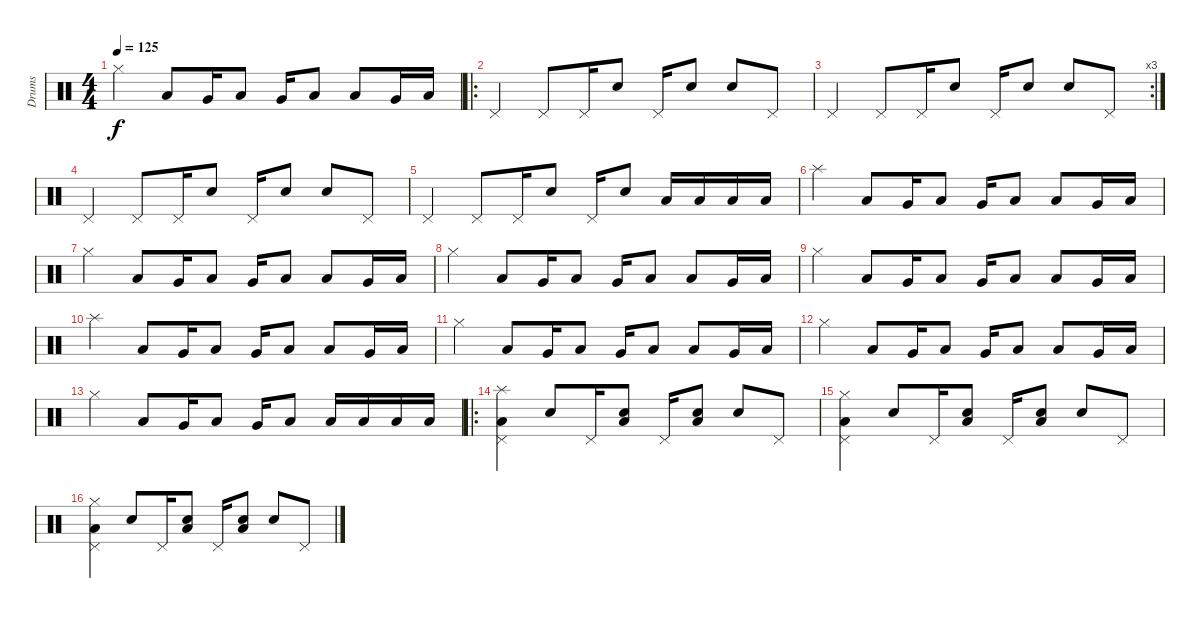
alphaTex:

\track ("Drums" "Drums") {instrument percussion}
\staff {score}
\articulation defaults
\ts (4 4)
\tempo 125
\clef neutral
\ks c "Hi-Hat (closed)".4{dy f} "Low Floor Tom (hit)".8 "Very Low Tom (hit)".16 "Low Floor Tom (hit)".8 "Very Low Tom (hit)".16 "Low Floor Tom (hit)".8 "Low Floor Tom (hit)".8 "Very Low Tom (hit)".16 "Low Floor Tom (hit)".16
|
\ro "Pedal Hi-Hat (hit)".4 "Pedal Hi-Hat (hit)".8 "Pedal Hi-Hat (hit)".16 "Snare (hit) 2".8 "Pedal Hi-Hat (hit)".16 "Snare (hit) 2".8 "Snare (hit) 2".8 "Pedal Hi-Hat (hit)".8
|
\rc 3 "Pedal Hi-Hat (hit)".4 "Pedal Hi-Hat (hit)".8 "Pedal Hi-Hat (hit)".16 "Snare (hit) 2".8 "Pedal Hi-Hat (hit)".16 "Snare (hit) 2".8 "Snare (hit) 2".8 "Pedal Hi-Hat (hit)".8
|
"Pedal Hi-Hat (hit)".4 "Pedal Hi-Hat (hit)".8 "Pedal Hi-Hat (hit)".16 "Snare (hit) 2".8 "Pedal Hi-Hat (hit)".16 "Snare (hit) 2".8 "Snare (hit) 2".8 "Pedal Hi-Hat (hit)".8 |
"Pedal Hi-Hat (hit)".4 "Pedal Hi-Hat (hit)".8 "Pedal Hi-Hat (hit)".16 "Snare (hit) 2".8 "Pedal Hi-Hat (hit)".16 "Snare (hit) 2".8 "Low Floor Tom (hit)".16 "Low Floor Tom (hit)".16 "Low Floor Tom (hit)".16 "Low Floor Tom (hit)".16 |
"Splash (hit)".4 "Low Floor Tom (hit)".8 "Very Low Tom (hit)".16 "Low Floor Tom (hit)".8 "Very Low Tom (hit)".16 "Low Floor Tom (hit)".8 "Low Floor Tom (hit)".8 "Very Low Tom (hit)".16 "Low Floor Tom (hit)".16 |
"Hi-Hat (closed)".4 "Low Floor Tom (hit)".8 "Very Low Tom (hit)".16 "Low Floor Tom (hit)".8 "Very Low Tom (hit)".16 "Low Floor Tom (hit)".8 "Low Floor Tom (hit)".8 "Very Low Tom (hit)".16 "Low Floor Tom (hit)".16 |
"Hi-Hat (closed)".4 "Low Floor Tom (hit)".8 "Very Low Tom (hit)".16 "Low Floor Tom (hit)".8 "Very Low Tom (hit)".16 "Low Floor Tom (hit)".8 "Low Floor Tom (hit)".8 "Very Low Tom (hit)".16 "Low Floor Tom (hit)".16 |
"Hi-Hat (closed)".4 "Low Floor Tom (hit)".8 "Very Low Tom (hit)".16 "Low Floor Tom (hit)".8 "Very Low Tom (hit)".16 "Low Floor Tom (hit)".8 "Low Floor Tom (hit)".8 "Very Low Tom (hit)".16 "Low Floor Tom (hit)".16 |
"Splash (hit)".4 "Low Floor Tom (hit)".8 "Very Low Tom (hit)".16 "Low Floor Tom (hit)".8 "Very Low Tom (hit)".16 "Low Floor Tom (hit)".8 "Low Floor Tom (hit)".8 "Very Low Tom (hit)".16 "Low Floor Tom (hit)".16 |
"Hi-Hat (closed)".4 "Low Floor Tom (hit)".8 "Very Low Tom (hit)".16 "Low Floor Tom (hit)".8 "Very Low Tom (hit)".16 "Low Floor Tom (hit)".8 "Low Floor Tom (hit)".8 "Very Low Tom (hit)".16 "Low Floor Tom (hit)".16 |
"Hi-Hat (closed)".4 "Low Floor Tom (hit)".8 "Very Low Tom (hit)".16 "Low Floor Tom (hit)".8 "Very Low Tom (hit)".16 "Low Floor Tom (hit)".8 "Low Floor Tom (hit)".8 "Very Low Tom (hit)".16 "Low Floor Tom (hit)".16 |
"Hi-Hat (closed)".4 "Low Floor Tom (hit)".8 "Very Low Tom (hit)".16 "Low Floor Tom (hit)".8 "Very Low Tom (hit)".16 "Low Floor Tom (hit)".8 "Low Floor Tom (hit)".16 "Low Floor Tom (hit)".16 "Low Floor Tom (hit)".16 "Low Floor Tom (hit)".16 |
\ro
("Pedal Hi-Hat (hit)" "Low Floor Tom (hit)" "Splash (hit)").4 "Snare (hit) 2".8 "Pedal Hi-Hat (hit)".16 ("Snare (hit) 2" "Low Floor Tom (hit)").8 "Pedal Hi-Hat (hit)".16 ("Snare (hit) 2" "Low Floor Tom (hit)").8 "Snare (hit) 2".8 "Pedal Hi-Hat (hit)".8 |
("Pedal Hi-Hat (hit)" "Low Floor Tom (hit)" "Hi-Hat (closed)").4 "Snare (hit) 2".8 "Pedal Hi-Hat (hit)".16 ("Snare (hit) 2" "Low Floor Tom (hit)").8 "Pedal Hi-Hat (hit)".16 ("Snare (hit) 2" "Low Floor Tom (hit)").8 "Snare (hit) 2".8 "Pedal Hi-Hat (hit)".8 |
("Pedal Hi-Hat (hit)" "Low Floor Tom (hit)" "Hi-Hat (closed)").4 "Snare (hit) 2".8 "Pedal Hi-Hat (hit)".16 ("Snare (hit) 2" "Low Floor Tom (hit)").8 "Pedal Hi-Hat (hit)".16 ("Snare (hit) 2" "Low Floor Tom (hit)").8 "Snare (hit) 2".8 "Pedal Hi-Hat (hit)".8
